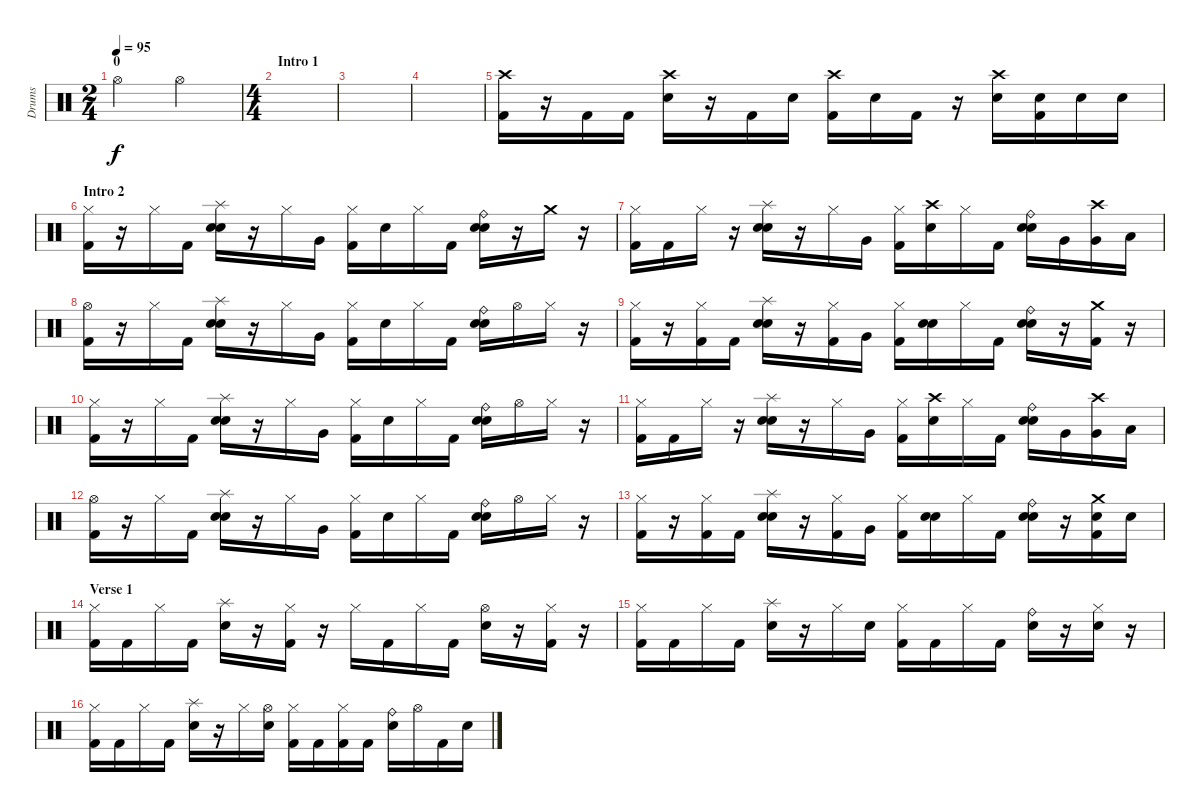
\track ("Drums" "Drums") {instrument percussion}
\staff {score}
\articulation defaults
\ts (2 4)
\section ("" "0")
\tempo 95
\clef neutral
\ks c "Hi-Hat (open)".4{dy f} "Hi-Hat (open)".4
|
\ts (4 4)
\section ("" "Intro 1")
|
|
|
("Crash high (hit)" "Kick (hit) 2").16 r.16 "Kick (hit) 2".16 "Kick (hit) 2".16 ("Crash high (hit)" "Electric Snare (hit)").16 r.16 "Kick (hit) 2".16 "Electric Snare (hit)".16 ("Crash high (hit)" "Kick (hit) 2").16 "Electric Snare (hit)".16 "Kick (hit) 2".16 r.16 ("Crash high (hit)" "Electric Snare (hit)").16 ("Kick (hit) 2" "Electric Snare (hit)").16 "Electric Snare (hit)".16 "Electric Snare (hit)".16 |
\section ("" "Intro 2")
("Hi-Hat (closed)" "Kick (hit) 2").16 r.16 "Hi-Hat (closed)".16 "Kick (hit) 2".16 ("Electric Snare (hit)" "Splash (hit)" "Hand Clap (hit)").16 r.16 "Hi-Hat (closed)".16 "Very Low Tom (hit)".16 ("Hi-Hat (closed)" "Kick (hit) 2").16 "Hand Clap (hit)".16 "Hi-Hat (closed)".16 "Kick (hit) 2".16 ("Electric Snare (hit)" "Ride (bell)" "Hand Clap (hit)").16 r.16 "Crash medium (hit)".16 r.16 |
("Hi-Hat (closed)" "Kick (hit) 2").16 "Kick (hit) 2".16 "Hi-Hat (closed)".16 r.16 ("Electric Snare (hit)" "Splash (hit)" "Hand Clap (hit)").16 r.16 "Hi-Hat (closed)".16 "Very Low Tom (hit)".16 ("Hi-Hat (closed)" "Kick (hit) 2").16 ("Crash high (hit)" "Hand Clap (hit)").16 "Hi-Hat (closed)".16 "Kick (hit) 2".16 ("Electric Snare (hit)" "Ride (bell)" "Hand Clap (hit)").16 "Very Low Tom (hit)".16 ("Crash high (hit)" "Very Low Tom (hit)").16 "Low Floor Tom (hit)".16 |
("Hi-Hat (open)" "Kick (hit) 2").16 r.16 "Hi-Hat (closed)".16 "Kick (hit) 2".16 ("Electric Snare (hit)" "Splash (hit)" "Hand Clap (hit)").16 r.16 "Hi-Hat (closed)".16 "Very Low Tom (hit)".16 ("Hi-Hat (closed)" "Kick (hit) 2").16 "Hand Clap (hit)".16 "Hi-Hat (closed)".16 "Kick (hit) 2".16 ("Electric Snare (hit)" "Ride (bell)" "Hand Clap (hit)").16 "Hi-Hat (open)".16 "Hi-Hat (closed)".16 r.16 |
("Hi-Hat (closed)" "Kick (hit) 2").16 r.16 ("Hi-Hat (closed)" "Kick (hit) 2").16 "Kick (hit) 2".16 ("Electric Snare (hit)" "Splash (hit)" "Hand Clap (hit)").16 r.16 ("Hi-Hat (closed)" "Kick (hit) 2").16 "Very Low Tom (hit)".16 ("Hi-Hat (closed)" "Kick (hit) 2").16 ("Electric Snare (hit)" "Hand Clap (hit)").16 "Hi-Hat (closed)".16 "Kick (hit) 2".16 ("Electric Snare (hit)" "Ride (bell)" "Hand Clap (hit)").16 r.16 ("Crash medium (hit)" "Kick (hit) 2").16 r.16 |
("Hi-Hat (closed)" "Kick (hit) 2").16 r.16 "Hi-Hat (closed)".16 "Kick (hit) 2".16 ("Electric Snare (hit)" "Splash (hit)" "Hand Clap (hit)").16 r.16 "Hi-Hat (closed)".16 "Very Low Tom (hit)".16 ("Hi-Hat (closed)" "Kick (hit) 2").16 "Hand Clap (hit)".16 "Hi-Hat (closed)".16 "Kick (hit) 2".16 ("Electric Snare (hit)" "Ride (bell)" "Hand Clap (hit)").16 "Hi-Hat (open)".16 "Hi-Hat (closed)".16 r.16 |
("Hi-Hat (closed)" "Kick (hit) 2").16 "Kick (hit) 2".16 "Hi-Hat (closed)".16 r.16 ("Electric Snare (hit)" "Splash (hit)" "Hand Clap (hit)").16 r.16 "Hi-Hat (closed)".16 "Very Low Tom (hit)".16 ("Hi-Hat (closed)" "Kick (hit) 2").16 ("Crash high (hit)" "Hand Clap (hit)").16 "Hi-Hat (closed)".16 "Kick (hit) 2".16 ("Electric Snare (hit)" "Ride (bell)" "Hand Clap (hit)").16 "Very Low Tom (hit)".16 ("Crash high (hit)" "Very Low Tom (hit)").16 "Low Floor Tom (hit)".16 |
("Hi-Hat (open)" "Kick (hit) 2").16 r.16 "Hi-Hat (closed)".16 "Kick (hit) 2".16 ("Electric Snare (hit)" "Splash (hit)" "Hand Clap (hit)").16 r.16 "Hi-Hat (closed)".16 "Very Low Tom (hit)".16 ("Hi-Hat (closed)" "Kick (hit) 2").16 "Hand Clap (hit)".16 "Hi-Hat (closed)".16 "Kick (hit) 2".16 ("Electric Snare (hit)" "Ride (bell)" "Hand Clap (hit)").16 "Hi-Hat (open)".16 "Hi-Hat (closed)".16 r.16 |
("Hi-Hat (closed)" "Kick (hit) 2").16 r.16 ("Hi-Hat (closed)" "Kick (hit) 2").16 "Kick (hit) 2".16 ("Electric Snare (hit)" "Splash (hit)" "Hand Clap (hit)").16 r.16 ("Hi-Hat (closed)" "Kick (hit) 2").16 "Very Low Tom (hit)".16 ("Hi-Hat (closed)" "Kick (hit) 2").16 ("Electric Snare (hit)" "Hand Clap (hit)").16 "Hi-Hat (closed)".16 "Kick (hit) 2".16 ("Electric Snare (hit)" "Ride (bell)" "Hand Clap (hit)").16 r.16 ("Crash medium (hit)" "Kick (hit) 2" "Electric Snare (hit)").16 "Electric Snare (hit)".16 |
\section ("" "Verse 1")
("Hi-Hat (closed)" "Kick (hit) 2").16 "Kick (hit) 2".16 "Hi-Hat (closed)".16 "Kick (hit) 2".16 ("Electric Snare (hit)" "Splash (hit)").16 r.16 ("Hi-Hat (closed)" "Kick (hit) 2").16 r.16 "Hi-Hat (closed)".16 "Kick (hit) 2".16 "Hi-Hat (closed)".16 "Kick (hit) 2".16 ("Hi-Hat (open)" "Electric Snare (hit)").16 r.16 ("Hi-Hat (closed)" "Kick (hit) 2").16 r.16 |
("Hi-Hat (closed)" "Kick (hit) 2").16 "Kick (hit) 2".16 "Hi-Hat (closed)".16 "Kick (hit) 2".16 ("Electric Snare (hit)" "Splash (hit)").16 r.16 "Hi-Hat (closed)".16 "Electric Snare (hit)".16 ("Hi-Hat (closed)" "Kick (hit) 2").16 "Kick (hit) 2".16 "Hi-Hat (closed)".16 "Kick (hit) 2".16 ("Electric Snare (hit)" "Ride (bell)").16 r.16 ("Hi-Hat (closed)" "Electric Snare (hit)").16 r.16 |
("Hi-Hat (closed)" "Kick (hit) 2").16 "Kick (hit) 2".16 "Hi-Hat (closed)".16 "Kick (hit) 2".16 ("Electric Snare (hit)" "Splash (hit)").16 r.16 "Hi-Hat (closed)".16 ("Hi-Hat (open)" "Electric Snare (hit)").16 ("Hi-Hat (closed)" "Kick (hit) 2").16 "Kick (hit) 2".16 ("Hi-Hat (closed)" "Kick (hit) 2").16 "Kick (hit) 2".16 ("Electric Snare (hit)" "Ride (bell)").16 "Hi-Hat (open)".16 "Kick (hit) 2".16 "Electric Snare (hit)".16
